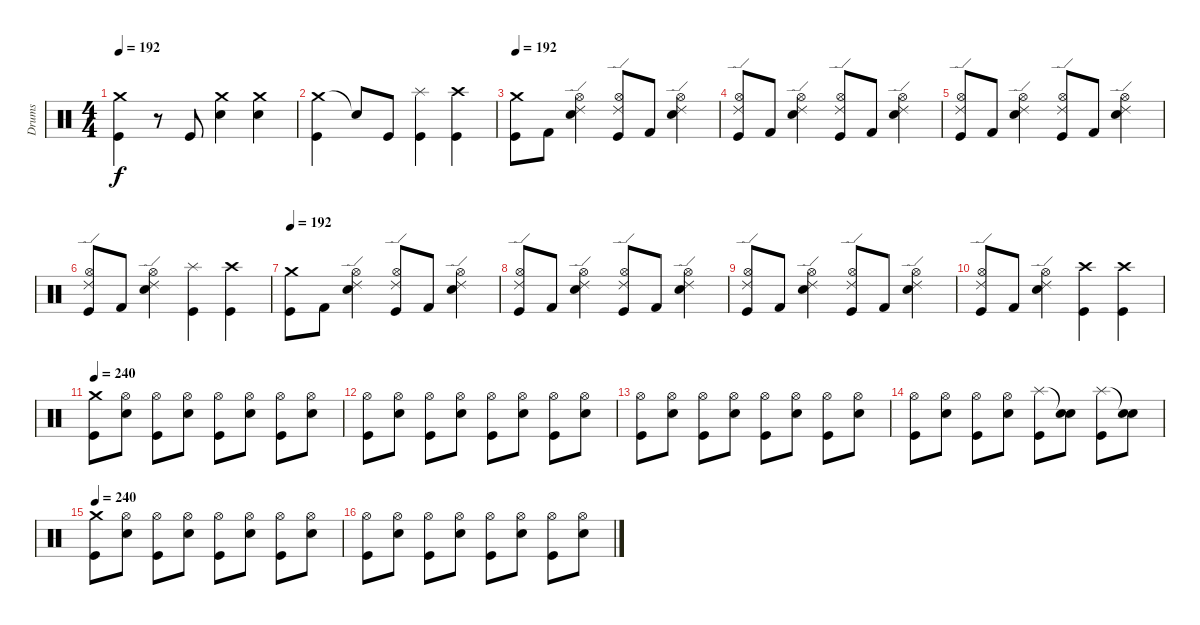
\track ("Drums" "Drums") {instrument percussion}
\staff {score}
\articulation defaults
\ts (4 4)
\tempo 192
\clef neutral
\ks c
("Crash medium (hit)" "Kick (hit)").4{dy f} r.8 "Kick (hit)".8 ("Crash medium (hit)" "Electric Snare (hit)").4 ("Crash medium (hit)" "Electric Snare (hit)").4 |
("Crash medium (hit)" "Kick (hit)").4 "Snare (hit)"{t}.8 "Kick (hit)".8 ("Splash (hit)" "Kick (hit)").4 ("Crash high (hit)" "Kick (hit)").4 |
\tempo 192
("Crash medium (hit)" "Kick (hit)").8 "Kick (hit) 2".8 ("Hi-Hat (open)" "Ride (edge) 2" "Electric Snare (hit)").4 ("Hi-Hat (open)" "Ride (edge) 2" "Kick (hit)").8 "Kick (hit) 2".8 ("Hi-Hat (open)" "Ride (edge) 2" "Electric Snare (hit)").4 |
("Hi-Hat (open)" "Ride (edge) 2" "Kick (hit)").8 "Kick (hit) 2".8 ("Hi-Hat (open)" "Ride (edge) 2" "Electric Snare (hit)").4 ("Hi-Hat (open)" "Ride (edge) 2" "Kick (hit)").8 "Kick (hit) 2".8 ("Hi-Hat (open)" "Ride (edge) 2" "Electric Snare (hit)").4 |
("Hi-Hat (open)" "Ride (edge) 2" "Kick (hit)").8 "Kick (hit) 2".8 ("Hi-Hat (open)" "Ride (edge) 2" "Electric Snare (hit)").4 ("Hi-Hat (open)" "Ride (edge) 2" "Kick (hit)").8 "Kick (hit) 2".8 ("Hi-Hat (open)" "Ride (edge) 2" "Electric Snare (hit)").4 |
("Hi-Hat (open)" "Ride (edge) 2" "Kick (hit)").8 "Kick (hit) 2".8 ("Hi-Hat (open)" "Ride (edge) 2" "Electric Snare (hit)").4 ("Splash (hit)" "Kick (hit)").4 ("Crash high (hit)" "Kick (hit)").4 |
\tempo 192
("Crash medium (hit)" "Kick (hit)").8 "Kick (hit) 2".8 ("Hi-Hat (open)" "Ride (edge) 2" "Electric Snare (hit)").4 ("Hi-Hat (open)" "Ride (edge) 2" "Kick (hit)").8 "Kick (hit) 2".8 ("Hi-Hat (open)" "Ride (edge) 2" "Electric Snare (hit)").4 |
("Hi-Hat (open)" "Ride (edge) 2" "Kick (hit)").8 "Kick (hit) 2".8 ("Hi-Hat (open)" "Ride (edge) 2" "Electric Snare (hit)").4 ("Hi-Hat (open)" "Ride (edge) 2" "Kick (hit)").8 "Kick (hit) 2".8 ("Hi-Hat (open)" "Ride (edge) 2" "Electric Snare (hit)").4 |
("Hi-Hat (open)" "Ride (edge) 2" "Kick (hit)").8 "Kick (hit) 2".8 ("Hi-Hat (open)" "Ride (edge) 2" "Electric Snare (hit)").4 ("Hi-Hat (open)" "Ride (edge) 2" "Kick (hit)").8 "Kick (hit) 2".8 ("Hi-Hat (open)" "Ride (edge) 2" "Electric Snare (hit)").4 |
("Hi-Hat (open)" "Ride (edge) 2" "Kick (hit)").8 "Kick (hit) 2".8 ("Hi-Hat (open)" "Ride (edge) 2" "Electric Snare (hit)").4 ("Crash high (hit)" "Kick (hit)").4 ("Crash high (hit)" "Kick (hit)").4 |
\tempo 240
("Crash medium (hit)" "Kick (hit)").8 ("Hi-Hat (open)" "Electric Snare (hit)").8 ("Hi-Hat (open)" "Kick (hit)").8 ("Hi-Hat (open)" "Electric Snare (hit)").8 ("Hi-Hat (open)" "Kick (hit)").8 ("Hi-Hat (open)" "Electric Snare (hit)").8 ("Hi-Hat (open)" "Kick (hit)").8 ("Hi-Hat (open)" "Electric Snare (hit)").8 |
("Hi-Hat (open)" "Kick (hit)").8 ("Hi-Hat (open)" "Electric Snare (hit)").8 ("Hi-Hat (open)" "Kick (hit)").8 ("Hi-Hat (open)" "Electric Snare (hit)").8 ("Hi-Hat (open)" "Kick (hit)").8 ("Hi-Hat (open)" "Electric Snare (hit)").8 ("Hi-Hat (open)" "Kick (hit)").8 ("Hi-Hat (open)" "Electric Snare (hit)").8 |
("Hi-Hat (open)" "Kick (hit)").8 ("Hi-Hat (open)" "Electric Snare (hit)").8 ("Hi-Hat (open)" "Kick (hit)").8 ("Hi-Hat (open)" "Electric Snare (hit)").8 ("Hi-Hat (open)" "Kick (hit)").8 ("Hi-Hat (open)" "Electric Snare (hit)").8 ("Hi-Hat (open)" "Kick (hit)").8 ("Hi-Hat (open)" "Electric Snare (hit)").8 |
("Hi-Hat (open)" "Kick (hit)").8 ("Hi-Hat (open)" "Electric Snare (hit)").8 ("Hi-Hat (open)" "Kick (hit)").8 ("Hi-Hat (open)" "Electric Snare (hit)").8 ("Splash (hit)" "Kick (hit)").8 ("Snare (hit)"{t} "Electric Snare (hit)").8 ("Splash (hit)" "Kick (hit)").8 ("Snare (hit)"{t} "Electric Snare (hit)").8 |
\tempo 240
("Crash medium (hit)" "Kick (hit)").8 ("Hi-Hat (open)" "Electric Snare (hit)").8 ("Hi-Hat (open)" "Kick (hit)").8 ("Hi-Hat (open)" "Electric Snare (hit)").8 ("Hi-Hat (open)" "Kick (hit)").8 ("Hi-Hat (open)" "Electric Snare (hit)").8 ("Hi-Hat (open)" "Kick (hit)").8 ("Hi-Hat (open)" "Electric Snare (hit)").8 |
("Hi-Hat (open)" "Kick (hit)").8 ("Hi-Hat (open)" "Electric Snare (hit)").8 ("Hi-Hat (open)" "Kick (hit)").8 ("Hi-Hat (open)" "Electric Snare (hit)").8 ("Hi-Hat (open)" "Kick (hit)").8 ("Hi-Hat (open)" "Electric Snare (hit)").8 ("Hi-Hat (open)" "Kick (hit)").8 ("Hi-Hat (open)" "Electric Snare (hit)").8
